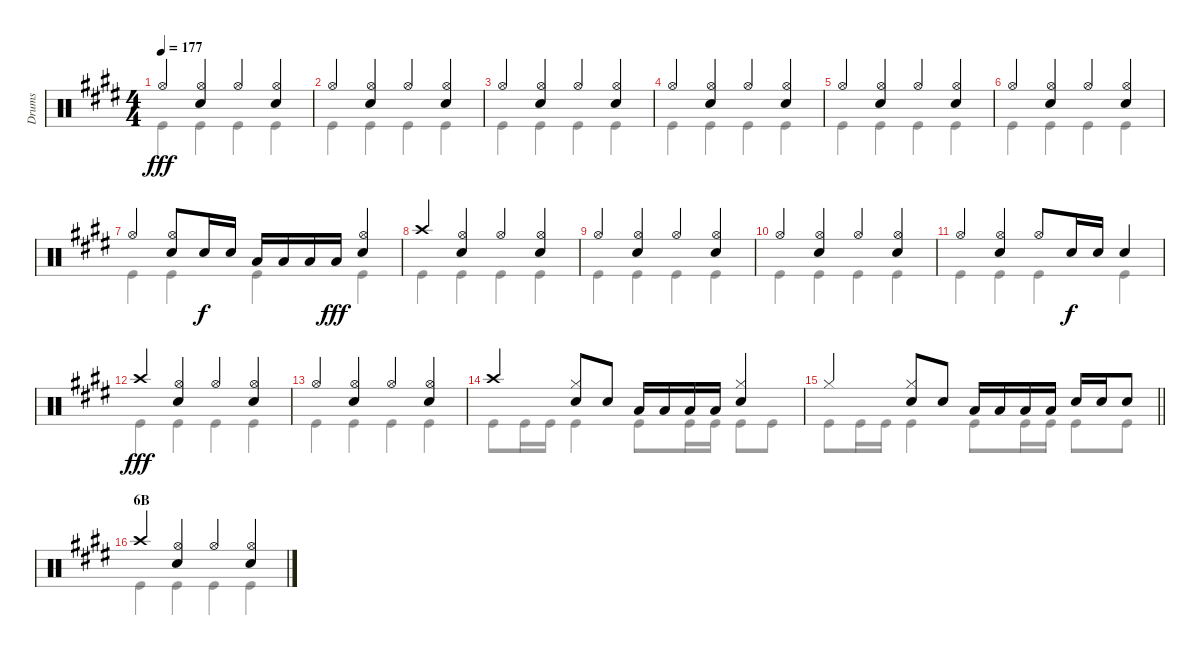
\track ("Drums" "Drums") {instrument percussion}
\staff {score}
\articulation defaults
\voice
\ts (4 4)
\tempo 177
\clef neutral
\ks e "Hi-Hat (open)".4{dy fff}
("Hi-Hat (open)" "Snare (hit) 2").4 "Hi-Hat (open)".4 ("Hi-Hat (open)" "Snare (hit) 2").4 |
"Hi-Hat (open)".4 ("Hi-Hat (open)" "Snare (hit) 2").4 "Hi-Hat (open)".4 ("Hi-Hat (open)" "Snare (hit) 2").4 |
"Hi-Hat (open)".4 ("Hi-Hat (open)" "Snare (hit) 2").4 "Hi-Hat (open)".4 ("Hi-Hat (open)" "Snare (hit) 2").4 |
"Hi-Hat (open)".4 ("Hi-Hat (open)" "Snare (hit) 2").4 "Hi-Hat (open)".4 ("Hi-Hat (open)" "Snare (hit) 2").4 |
"Hi-Hat (open)".4 ("Hi-Hat (open)" "Snare (hit) 2").4 "Hi-Hat (open)".4 ("Hi-Hat (open)" "Snare (hit) 2").4 |
"Hi-Hat (open)".4 ("Hi-Hat (open)" "Snare (hit) 2").4 "Hi-Hat (open)".4 ("Hi-Hat (open)" "Snare (hit) 2").4 |
"Hi-Hat (open)".4 ("Hi-Hat (open)" "Snare (hit) 2").8 "Snare (hit) 2".16{dy f} "Snare (hit) 2".16 "Low Tom (hit)".16 "Low Tom (hit)".16 "Low Tom (hit)".16 "Low Tom (hit)".16{dy fff} ("Hi-Hat (open)" "Snare (hit) 2").4 |
"Crash high (hit)".4 ("Hi-Hat (open)" "Snare (hit) 2").4 "Hi-Hat (open)".4 ("Hi-Hat (open)" "Snare (hit) 2").4 |
"Hi-Hat (open)".4 ("Hi-Hat (open)" "Snare (hit) 2").4 "Hi-Hat (open)".4 ("Hi-Hat (open)" "Snare (hit) 2").4 |
"Hi-Hat (open)".4 ("Hi-Hat (open)" "Snare (hit) 2").4 "Hi-Hat (open)".4 ("Hi-Hat (open)" "Snare (hit) 2").4 |
"Hi-Hat (open)".4 ("Hi-Hat (open)" "Snare (hit) 2").4 "Hi-Hat (open)".8 "Snare (hit) 2".16{dy f} "Snare (hit) 2".16 "Snare (hit) 2".4 |
"Crash high (hit)".4{dy fff} ("Hi-Hat (open)" "Snare (hit) 2").4 "Hi-Hat (open)".4 ("Hi-Hat (open)" "Snare (hit) 2").4 |
"Hi-Hat (open)".4 ("Hi-Hat (open)" "Snare (hit) 2").4 "Hi-Hat (open)".4 ("Hi-Hat (open)" "Snare (hit) 2").4 |
"Crash high (hit)".4 ("Snare (hit) 2" "Hi-Hat (closed)").8 "Snare (hit) 2".8 "Low Tom (hit)".16 "Low Tom (hit)".16 "Low Tom (hit)".16 "Low Tom (hit)".16 ("Hi-Hat (closed)" "Snare (hit) 2").4 |
\barLineRight lightlight "Hi-Hat (closed)".4
("Snare (hit) 2" "Hi-Hat (closed)").8 "Snare (hit) 2".8 "Low Tom (hit)".16 "Low Tom (hit)".16 "Low Tom (hit)".16 "Low Tom (hit)".16 "Snare (hit) 2".16 "Snare (hit) 2".16 "Snare (hit) 2".8 |
\section ("" "6B")
"Crash high (hit)".4 ("Hi-Hat (open)" "Snare (hit) 2").4 "Hi-Hat (open)".4 ("Hi-Hat (open)" "Snare (hit) 2").4
\voice
\clef neutral
\ottava regular
\simile none
\ks e "Kick (hit)".4{dy fff} "Kick (hit)".4 "Kick (hit)".4 "Kick (hit)".4
|
"Kick (hit)".4 "Kick (hit)".4 "Kick (hit)".4 "Kick (hit)".4 |
"Kick (hit)".4 "Kick (hit)".4 "Kick (hit)".4 "Kick (hit)".4 |
"Kick (hit)".4 "Kick (hit)".4 "Kick (hit)".4 "Kick (hit)".4 |
"Kick (hit)".4 "Kick (hit)".4 "Kick (hit)".4 "Kick (hit)".4 |
"Kick (hit)".4 "Kick (hit)".4 "Kick (hit)".4 "Kick (hit)".4 |
"Kick (hit)".4 "Kick (hit)".4 "Kick (hit)".4 "Kick (hit)".4 |
"Kick (hit)".4 "Kick (hit)".4 "Kick (hit)".4 "Kick (hit)".4 |
"Kick (hit)".4 "Kick (hit)".4 "Kick (hit)".4 "Kick (hit)".4 |
"Kick (hit)".4 "Kick (hit)".4 "Kick (hit)".4 "Kick (hit)".4 |
"Kick (hit)".4 "Kick (hit)".4 "Kick (hit)".4 "Kick (hit)".4 |
"Kick (hit)".4 "Kick (hit)".4 "Kick (hit)".4 "Kick (hit)".4 |
"Kick (hit)".4 "Kick (hit)".4 "Kick (hit)".4 "Kick (hit)".4 |
"Kick (hit)".8 "Kick (hit)".16 "Kick (hit)".16 "Kick (hit)".4 "Kick (hit)".8 "Kick (hit)".16 "Kick (hit)".16 "Kick (hit)".8 "Kick (hit)".8 |
\barLineRight lightlight "Kick (hit)".8 "Kick (hit)".16 "Kick (hit)".16 "Kick (hit)".4 "Kick (hit)".8 "Kick (hit)".16 "Kick (hit)".16 "Kick (hit)".8 "Kick (hit)".8
|
"Kick (hit)".4 "Kick (hit)".4 "Kick (hit)".4 "Kick (hit)".4
